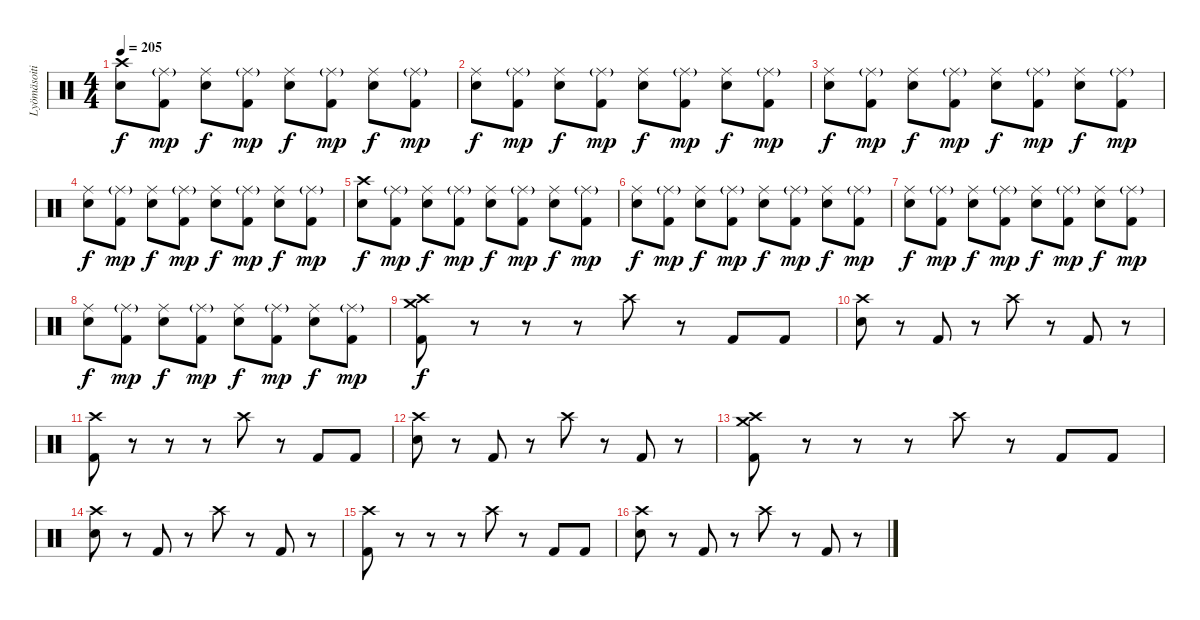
\track ("Lyömäsoitin" "Lyömäsoiti") {instrument percussion}
\staff {score}
\articulation defaults
\ts (4 4)
\tempo 205
\clef neutral
\ks c
("Electric Snare (hit)" "Crash high (hit)").8{dy f} ("Kick (hit) 2" "Ride (middle)"{g}).8{dy mp} ("Electric Snare (hit)" "Ride (middle)").8{dy f} ("Kick (hit) 2" "Ride (middle)"{g}).8{dy mp} ("Electric Snare (hit)" "Ride (middle)").8{dy f} ("Kick (hit) 2" "Ride (middle)"{g}).8{dy mp} ("Electric Snare (hit)" "Ride (middle)").8{dy f} ("Kick (hit) 2" "Ride (middle)"{g}).8{dy mp} |
("Electric Snare (hit)" "Ride (middle)").8{dy f} ("Kick (hit) 2" "Ride (middle)"{g}).8{dy mp} ("Electric Snare (hit)" "Ride (middle)").8{dy f} ("Kick (hit) 2" "Ride (middle)"{g}).8{dy mp} ("Electric Snare (hit)" "Ride (middle)").8{dy f} ("Kick (hit) 2" "Ride (middle)"{g}).8{dy mp} ("Electric Snare (hit)" "Ride (middle)").8{dy f} ("Kick (hit) 2" "Ride (middle)"{g}).8{dy mp} |
("Electric Snare (hit)" "Ride (middle)").8{dy f} ("Kick (hit) 2" "Ride (middle)"{g}).8{dy mp} ("Electric Snare (hit)" "Ride (middle)").8{dy f} ("Kick (hit) 2" "Ride (middle)"{g}).8{dy mp} ("Electric Snare (hit)" "Ride (middle)").8{dy f} ("Kick (hit) 2" "Ride (middle)"{g}).8{dy mp} ("Electric Snare (hit)" "Ride (middle)").8{dy f} ("Kick (hit) 2" "Ride (middle)"{g}).8{dy mp} |
("Electric Snare (hit)" "Ride (middle)").8{dy f} ("Kick (hit) 2" "Ride (middle)"{g}).8{dy mp} ("Electric Snare (hit)" "Ride (middle)").8{dy f} ("Kick (hit) 2" "Ride (middle)"{g}).8{dy mp} ("Electric Snare (hit)" "Ride (middle)").8{dy f} ("Kick (hit) 2" "Ride (middle)"{g}).8{dy mp} ("Electric Snare (hit)" "Ride (middle)").8{dy f} ("Kick (hit) 2" "Ride (middle)"{g}).8{dy mp} |
("Electric Snare (hit)" "Crash high (hit)").8{dy f} ("Kick (hit) 2" "Ride (middle)"{g}).8{dy mp} ("Electric Snare (hit)" "Ride (middle)").8{dy f} ("Kick (hit) 2" "Ride (middle)"{g}).8{dy mp} ("Electric Snare (hit)" "Ride (middle)").8{dy f} ("Kick (hit) 2" "Ride (middle)"{g}).8{dy mp} ("Electric Snare (hit)" "Ride (middle)").8{dy f} ("Kick (hit) 2" "Ride (middle)"{g}).8{dy mp} |
("Electric Snare (hit)" "Ride (middle)").8{dy f} ("Kick (hit) 2" "Ride (middle)"{g}).8{dy mp} ("Electric Snare (hit)" "Ride (middle)").8{dy f} ("Kick (hit) 2" "Ride (middle)"{g}).8{dy mp} ("Electric Snare (hit)" "Ride (middle)").8{dy f} ("Kick (hit) 2" "Ride (middle)"{g}).8{dy mp} ("Electric Snare (hit)" "Ride (middle)").8{dy f} ("Kick (hit) 2" "Ride (middle)"{g}).8{dy mp} |
("Electric Snare (hit)" "Ride (middle)").8{dy f} ("Kick (hit) 2" "Ride (middle)"{g}).8{dy mp} ("Electric Snare (hit)" "Ride (middle)").8{dy f} ("Kick (hit) 2" "Ride (middle)"{g}).8{dy mp} ("Electric Snare (hit)" "Ride (middle)").8{dy f} ("Kick (hit) 2" "Ride (middle)"{g}).8{dy mp} ("Electric Snare (hit)" "Ride (middle)").8{dy f} ("Kick (hit) 2" "Ride (middle)"{g}).8{dy mp} |
("Electric Snare (hit)" "Ride (middle)").8{dy f} ("Kick (hit) 2" "Ride (middle)"{g}).8{dy mp} ("Electric Snare (hit)" "Ride (middle)").8{dy f} ("Kick (hit) 2" "Ride (middle)"{g}).8{dy mp} ("Electric Snare (hit)" "Ride (middle)").8{dy f} ("Kick (hit) 2" "Ride (middle)"{g}).8{dy mp} ("Electric Snare (hit)" "Ride (middle)").8{dy f} ("Kick (hit) 2" "Ride (middle)"{g}).8{dy mp} |
("Kick (hit) 2" "Crash medium (hit)" "Crash high (hit)").8{dy f} r.8 r.8 r.8 "Crash high (hit)".8 r.8 "Kick (hit) 2".8 "Kick (hit) 2".8 |
("Electric Snare (hit)" "Crash high (hit)").8 r.8 "Kick (hit) 2".8 r.8 "Crash high (hit)".8 r.8 "Kick (hit) 2".8 r.8 |
("Kick (hit) 2" "Crash high (hit)").8 r.8 r.8 r.8 "Crash high (hit)".8 r.8 "Kick (hit) 2".8 "Kick (hit) 2".8 |
("Electric Snare (hit)" "Crash high (hit)").8 r.8 "Kick (hit) 2".8 r.8 "Crash high (hit)".8 r.8 "Kick (hit) 2".8 r.8 |
("Kick (hit) 2" "Crash medium (hit)" "Crash high (hit)").8 r.8 r.8 r.8 "Crash high (hit)".8 r.8 "Kick (hit) 2".8 "Kick (hit) 2".8 |
("Electric Snare (hit)" "Crash high (hit)").8 r.8 "Kick (hit) 2".8 r.8 "Crash high (hit)".8 r.8 "Kick (hit) 2".8 r.8 |
("Kick (hit) 2" "Crash high (hit)").8 r.8 r.8 r.8 "Crash high (hit)".8 r.8 "Kick (hit) 2".8 "Kick (hit) 2".8 |
("Electric Snare (hit)" "Crash high (hit)").8 r.8 "Kick (hit) 2".8 r.8 "Crash high (hit)".8 r.8 "Kick (hit) 2".8 r.8
